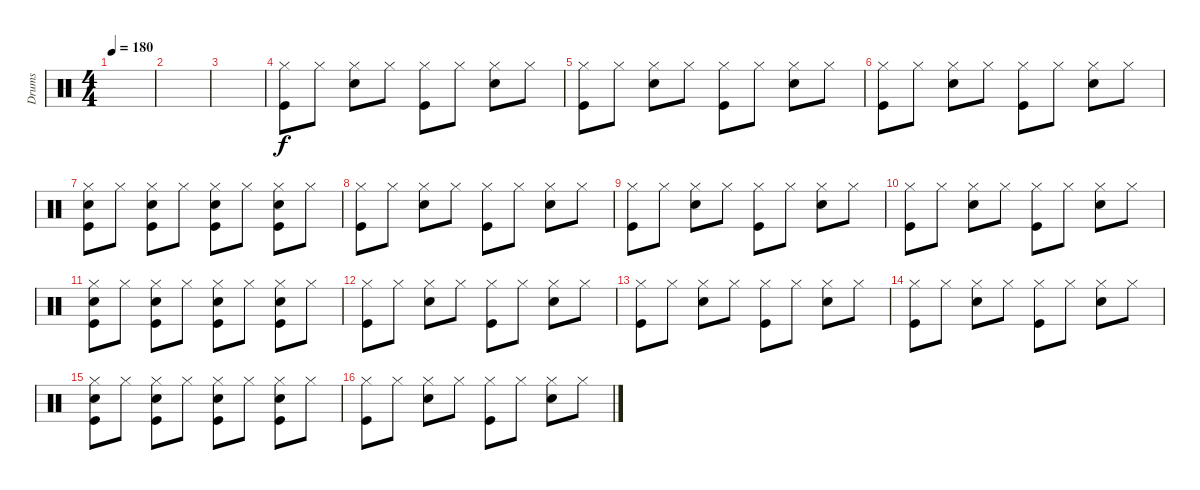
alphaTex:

\track ("Drums" "Drums") {instrument percussion}
\staff {score}
\articulation defaults
\ts (4 4)
\tempo 180
\clef neutral
\ks c
|
|
|
("Hi-Hat (closed)" "Kick (hit)").8 "Hi-Hat (closed)".8 ("Hi-Hat (closed)" "Snare (hit) 2").8 "Hi-Hat (closed)".8 ("Hi-Hat (closed)" "Kick (hit)").8 "Hi-Hat (closed)".8 ("Hi-Hat (closed)" "Snare (hit) 2").8 "Hi-Hat (closed)".8 |
("Hi-Hat (closed)" "Kick (hit)").8 "Hi-Hat (closed)".8 ("Hi-Hat (closed)" "Snare (hit) 2").8 "Hi-Hat (closed)".8 ("Hi-Hat (closed)" "Kick (hit)").8 "Hi-Hat (closed)".8 ("Hi-Hat (closed)" "Snare (hit) 2").8 "Hi-Hat (closed)".8 |
("Hi-Hat (closed)" "Kick (hit)").8 "Hi-Hat (closed)".8 ("Hi-Hat (closed)" "Snare (hit) 2").8 "Hi-Hat (closed)".8 ("Hi-Hat (closed)" "Kick (hit)").8 "Hi-Hat (closed)".8 ("Hi-Hat (closed)" "Snare (hit) 2").8 "Hi-Hat (closed)".8 |
("Hi-Hat (closed)" "Kick (hit)" "Snare (hit) 2").8 "Hi-Hat (closed)".8 ("Hi-Hat (closed)" "Kick (hit)" "Snare (hit) 2").8 "Hi-Hat (closed)".8 ("Hi-Hat (closed)" "Kick (hit)" "Snare (hit) 2").8 "Hi-Hat (closed)".8 ("Hi-Hat (closed)" "Kick (hit)" "Snare (hit) 2").8 "Hi-Hat (closed)".8 |
("Hi-Hat (closed)" "Kick (hit)").8 "Hi-Hat (closed)".8 ("Hi-Hat (closed)" "Snare (hit) 2").8 "Hi-Hat (closed)".8 ("Hi-Hat (closed)" "Kick (hit)").8 "Hi-Hat (closed)".8 ("Hi-Hat (closed)" "Snare (hit) 2").8 "Hi-Hat (closed)".8 |
("Hi-Hat (closed)" "Kick (hit)").8 "Hi-Hat (closed)".8 ("Hi-Hat (closed)" "Snare (hit) 2").8 "Hi-Hat (closed)".8 ("Hi-Hat (closed)" "Kick (hit)").8 "Hi-Hat (closed)".8 ("Hi-Hat (closed)" "Snare (hit) 2").8 "Hi-Hat (closed)".8 |
("Hi-Hat (closed)" "Kick (hit)").8 "Hi-Hat (closed)".8 ("Hi-Hat (closed)" "Snare (hit) 2").8 "Hi-Hat (closed)".8 ("Hi-Hat (closed)" "Kick (hit)").8 "Hi-Hat (closed)".8 ("Hi-Hat (closed)" "Snare (hit) 2").8 "Hi-Hat (closed)".8 |
("Hi-Hat (closed)" "Kick (hit)" "Snare (hit) 2").8 "Hi-Hat (closed)".8 ("Hi-Hat (closed)" "Kick (hit)" "Snare (hit) 2").8 "Hi-Hat (closed)".8 ("Hi-Hat (closed)" "Kick (hit)" "Snare (hit) 2").8 "Hi-Hat (closed)".8 ("Hi-Hat (closed)" "Kick (hit)" "Snare (hit) 2").8 "Hi-Hat (closed)".8 |
("Hi-Hat (closed)" "Kick (hit)").8 "Hi-Hat (closed)".8 ("Hi-Hat (closed)" "Snare (hit) 2").8 "Hi-Hat (closed)".8 ("Hi-Hat (closed)" "Kick (hit)").8 "Hi-Hat (closed)".8 ("Hi-Hat (closed)" "Snare (hit) 2").8 "Hi-Hat (closed)".8 |
("Hi-Hat (closed)" "Kick (hit)").8 "Hi-Hat (closed)".8 ("Hi-Hat (closed)" "Snare (hit) 2").8 "Hi-Hat (closed)".8 ("Hi-Hat (closed)" "Kick (hit)").8 "Hi-Hat (closed)".8 ("Hi-Hat (closed)" "Snare (hit) 2").8 "Hi-Hat (closed)".8 |
("Hi-Hat (closed)" "Kick (hit)").8 "Hi-Hat (closed)".8 ("Hi-Hat (closed)" "Snare (hit) 2").8 "Hi-Hat (closed)".8 ("Hi-Hat (closed)" "Kick (hit)").8 "Hi-Hat (closed)".8 ("Hi-Hat (closed)" "Snare (hit) 2").8 "Hi-Hat (closed)".8 |
("Hi-Hat (closed)" "Kick (hit)" "Snare (hit) 2").8 "Hi-Hat (closed)".8 ("Hi-Hat (closed)" "Kick (hit)" "Snare (hit) 2").8 "Hi-Hat (closed)".8 ("Hi-Hat (closed)" "Kick (hit)" "Snare (hit) 2").8 "Hi-Hat (closed)".8 ("Hi-Hat (closed)" "Kick (hit)" "Snare (hit) 2").8 "Hi-Hat (closed)".8 |
("Hi-Hat (closed)" "Kick (hit)").8 "Hi-Hat (closed)".8 ("Hi-Hat (closed)" "Snare (hit) 2").8 "Hi-Hat (closed)".8 ("Hi-Hat (closed)" "Kick (hit)").8 "Hi-Hat (closed)".8 ("Hi-Hat (closed)" "Snare (hit) 2").8 "Hi-Hat (closed)".8
